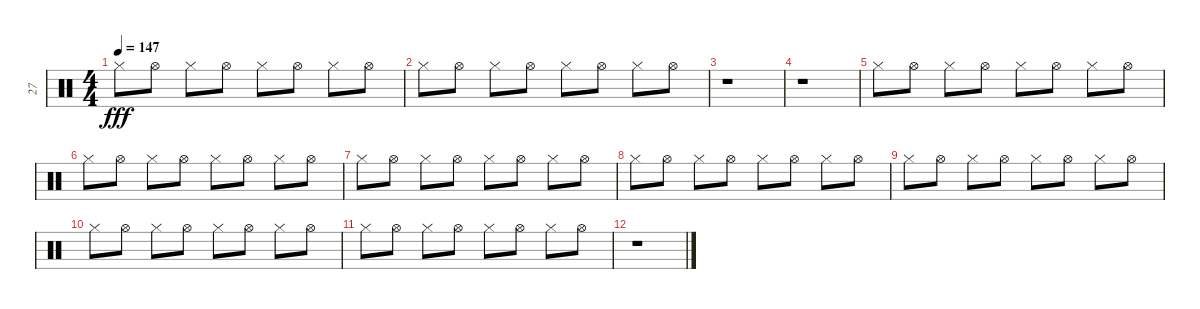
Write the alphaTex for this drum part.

\track ("27" "27") {instrument percussion}
\staff {score}
\articulation defaults
\ts (4 4)
\tempo 147
\clef neutral
\ks c "Hi-Hat (closed)".8{dy fff} "Hi-Hat (open)".8 "Hi-Hat (closed)".8 "Hi-Hat (open)".8 "Hi-Hat (closed)".8 "Hi-Hat (open)".8 "Hi-Hat (closed)".8 "Hi-Hat (open)".8
|
"Hi-Hat (closed)".8 "Hi-Hat (open)".8 "Hi-Hat (closed)".8 "Hi-Hat (open)".8 "Hi-Hat (closed)".8 "Hi-Hat (open)".8 "Hi-Hat (closed)".8 "Hi-Hat (open)".8 |
r.1 |
r.1 |
"Hi-Hat (closed)".8 "Hi-Hat (open)".8 "Hi-Hat (closed)".8 "Hi-Hat (open)".8 "Hi-Hat (closed)".8 "Hi-Hat (open)".8 "Hi-Hat (closed)".8 "Hi-Hat (open)".8 |
"Hi-Hat (closed)".8 "Hi-Hat (open)".8 "Hi-Hat (closed)".8 "Hi-Hat (open)".8 "Hi-Hat (closed)".8 "Hi-Hat (open)".8 "Hi-Hat (closed)".8 "Hi-Hat (open)".8 |
"Hi-Hat (closed)".8 "Hi-Hat (open)".8 "Hi-Hat (closed)".8 "Hi-Hat (open)".8 "Hi-Hat (closed)".8 "Hi-Hat (open)".8 "Hi-Hat (closed)".8 "Hi-Hat (open)".8 |
"Hi-Hat (closed)".8 "Hi-Hat (open)".8 "Hi-Hat (closed)".8 "Hi-Hat (open)".8 "Hi-Hat (closed)".8 "Hi-Hat (open)".8 "Hi-Hat (closed)".8 "Hi-Hat (open)".8 |
"Hi-Hat (closed)".8 "Hi-Hat (open)".8 "Hi-Hat (closed)".8 "Hi-Hat (open)".8 "Hi-Hat (closed)".8 "Hi-Hat (open)".8 "Hi-Hat (closed)".8 "Hi-Hat (open)".8 |
"Hi-Hat (closed)".8 "Hi-Hat (open)".8 "Hi-Hat (closed)".8 "Hi-Hat (open)".8 "Hi-Hat (closed)".8 "Hi-Hat (open)".8 "Hi-Hat (closed)".8 "Hi-Hat (open)".8 |
"Hi-Hat (closed)".8 "Hi-Hat (open)".8 "Hi-Hat (closed)".8 "Hi-Hat (open)".8 "Hi-Hat (closed)".8 "Hi-Hat (open)".8 "Hi-Hat (closed)".8 "Hi-Hat (open)".8 |
r.1
